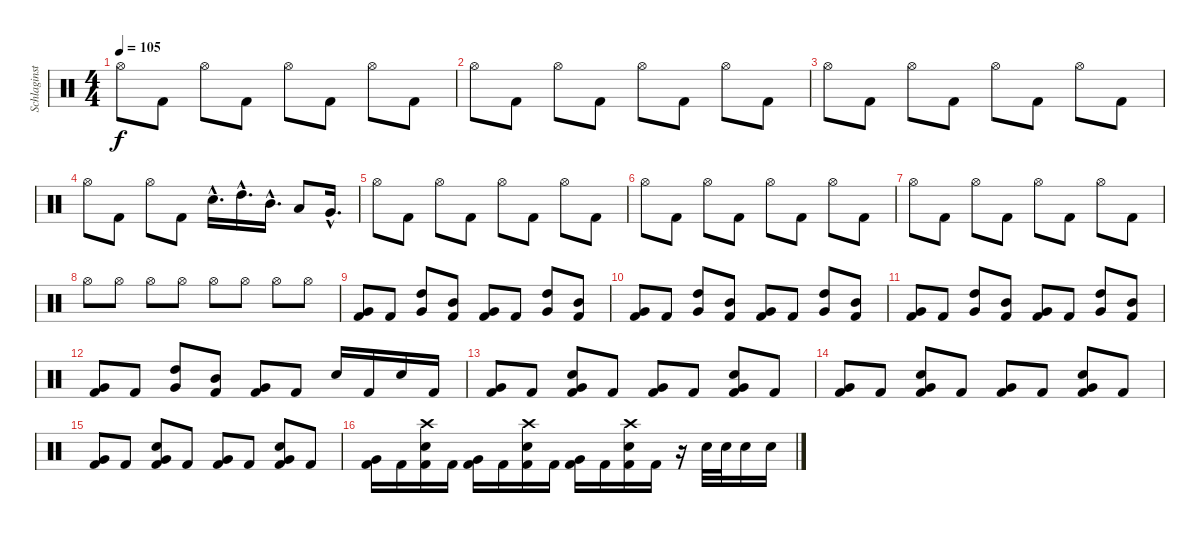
\track ("Schlaginstrumente - Auswahl" "Schlaginst") {instrument percussion}
\staff {score}
\articulation defaults
\ts (4 4)
\tempo 105
\clef neutral
\ks c "Hi-Hat (open)".8{dy f} "Kick (hit) 2".8 "Hi-Hat (open)".8 "Kick (hit) 2".8 "Hi-Hat (open)".8 "Kick (hit) 2".8 "Hi-Hat (open)".8 "Kick (hit) 2".8
|
"Hi-Hat (open)".8 "Kick (hit) 2".8 "Hi-Hat (open)".8 "Kick (hit) 2".8 "Hi-Hat (open)".8 "Kick (hit) 2".8 "Hi-Hat (open)".8 "Kick (hit) 2".8 |
"Hi-Hat (open)".8 "Kick (hit) 2".8 "Hi-Hat (open)".8 "Kick (hit) 2".8 "Hi-Hat (open)".8 "Kick (hit) 2".8 "Hi-Hat (open)".8 "Kick (hit) 2".8 |
"Hi-Hat (open)".8 "Kick (hit) 2".8 "Hi-Hat (open)".8 "Kick (hit) 2".8 "Electric Snare (hit)"{hac}.16{d} "High Tom (hit)"{hac}.16{d} "Mid Tom (hit)"{hac}.16{d} "Low Tom (hit)".8 "Very Low Tom (hit)"{hac}.16{d} |
"Hi-Hat (open)".8 "Kick (hit) 2".8 "Hi-Hat (open)".8 "Kick (hit) 2".8 "Hi-Hat (open)".8 "Kick (hit) 2".8 "Hi-Hat (open)".8 "Kick (hit) 2".8 |
"Hi-Hat (open)".8 "Kick (hit) 2".8 "Hi-Hat (open)".8 "Kick (hit) 2".8 "Hi-Hat (open)".8 "Kick (hit) 2".8 "Hi-Hat (open)".8 "Kick (hit) 2".8 |
"Hi-Hat (open)".8 "Kick (hit) 2".8 "Hi-Hat (open)".8 "Kick (hit) 2".8 "Hi-Hat (open)".8 "Kick (hit) 2".8 "Hi-Hat (open)".8 "Kick (hit) 2".8 |
"Hi-Hat (open)".8 "Hi-Hat (open)".8 "Hi-Hat (open)".8 "Hi-Hat (open)".8 "Hi-Hat (open)".8 "Hi-Hat (open)".8 "Hi-Hat (open)".8 "Hi-Hat (open)".8 |
("Very Low Tom (hit)" "Kick (hit) 2").8 "Kick (hit) 2".8 ("Very Low Tom (hit)" "High Tom (hit)").8 ("Mid Tom (hit)" "Kick (hit) 2").8 ("Very Low Tom (hit)" "Kick (hit) 2").8 "Kick (hit) 2".8 ("Very Low Tom (hit)" "High Tom (hit)").8 ("Mid Tom (hit)" "Kick (hit) 2").8 |
("Very Low Tom (hit)" "Kick (hit) 2").8 "Kick (hit) 2".8 ("Very Low Tom (hit)" "High Tom (hit)").8 ("Mid Tom (hit)" "Kick (hit) 2").8 ("Very Low Tom (hit)" "Kick (hit) 2").8 "Kick (hit) 2".8 ("Very Low Tom (hit)" "High Tom (hit)").8 ("Mid Tom (hit)" "Kick (hit) 2").8 |
("Very Low Tom (hit)" "Kick (hit) 2").8 "Kick (hit) 2".8 ("Very Low Tom (hit)" "High Tom (hit)").8 ("Mid Tom (hit)" "Kick (hit) 2").8 ("Very Low Tom (hit)" "Kick (hit) 2").8 "Kick (hit) 2".8 ("Very Low Tom (hit)" "High Tom (hit)").8 ("Mid Tom (hit)" "Kick (hit) 2").8 |
("Very Low Tom (hit)" "Kick (hit) 2").8 "Kick (hit) 2".8 ("Very Low Tom (hit)" "High Tom (hit)").8 ("Mid Tom (hit)" "Kick (hit) 2").8 ("Very Low Tom (hit)" "Kick (hit) 2").8 "Kick (hit) 2".8 "Electric Snare (hit)".16 "Kick (hit) 2".16 "Electric Snare (hit)".16 "Kick (hit) 2".16 |
("Very Low Tom (hit)" "Kick (hit) 2").8 "Kick (hit) 2".8 ("Very Low Tom (hit)" "Electric Snare (hit)" "Kick (hit) 2").8 "Kick (hit) 2".8 ("Very Low Tom (hit)" "Kick (hit) 2").8 "Kick (hit) 2".8 ("Very Low Tom (hit)" "Electric Snare (hit)" "Kick (hit) 2").8 "Kick (hit) 2".8 |
("Very Low Tom (hit)" "Kick (hit) 2").8 "Kick (hit) 2".8 ("Very Low Tom (hit)" "Electric Snare (hit)" "Kick (hit) 2").8 "Kick (hit) 2".8 ("Very Low Tom (hit)" "Kick (hit) 2").8 "Kick (hit) 2".8 ("Very Low Tom (hit)" "Electric Snare (hit)" "Kick (hit) 2").8 "Kick (hit) 2".8 |
("Very Low Tom (hit)" "Kick (hit) 2").8 "Kick (hit) 2".8 ("Very Low Tom (hit)" "Electric Snare (hit)" "Kick (hit) 2").8 "Kick (hit) 2".8 ("Very Low Tom (hit)" "Kick (hit) 2").8 "Kick (hit) 2".8 ("Very Low Tom (hit)" "Electric Snare (hit)" "Kick (hit) 2").8 "Kick (hit) 2".8 |
("Very Low Tom (hit)" "Kick (hit) 2").16 "Kick (hit) 2".16 ("Crash high (hit)" "Electric Snare (hit)" "Kick (hit) 2").16 "Kick (hit) 2".16 ("Very Low Tom (hit)" "Kick (hit) 2").16 "Kick (hit) 2".16 ("Crash high (hit)" "Electric Snare (hit)" "Kick (hit) 2").16 "Kick (hit) 2".16 ("Very Low Tom (hit)" "Kick (hit) 2").16 "Kick (hit) 2".16 ("Crash high (hit)" "Electric Snare (hit)" "Kick (hit) 2").16 "Kick (hit) 2".16 r.16 "Electric Snare (hit)".32 "Electric Snare (hit)".32 "Electric Snare (hit)".16 "Electric Snare (hit)".16
